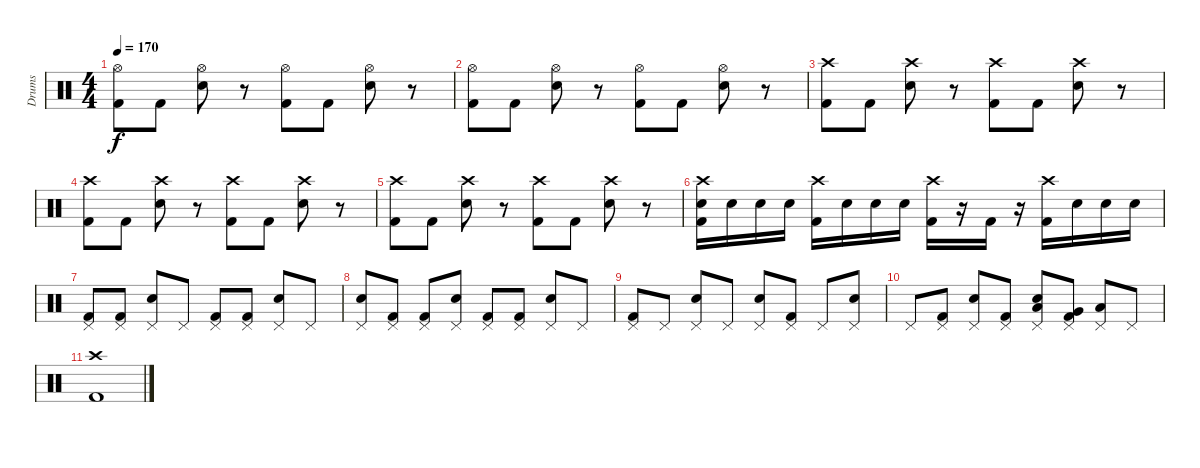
\track ("Drums" "Drums") {instrument percussion}
\staff {score}
\articulation defaults
\ts (4 4)
\tempo 170
\clef neutral
\ks c
("Hi-Hat (open)" "Kick (hit) 2").8{dy f} "Kick (hit) 2".8 ("Hi-Hat (open)" "Electric Snare (hit)").8 r.8 ("Hi-Hat (open)" "Kick (hit) 2").8 "Kick (hit) 2".8 ("Hi-Hat (open)" "Electric Snare (hit)").8 r.8 |
("Hi-Hat (open)" "Kick (hit) 2").8 "Kick (hit) 2".8 ("Hi-Hat (open)" "Electric Snare (hit)").8 r.8 ("Hi-Hat (open)" "Kick (hit) 2").8 "Kick (hit) 2".8 ("Hi-Hat (open)" "Electric Snare (hit)").8 r.8 |
("Crash high (hit)" "Kick (hit) 2").8 "Kick (hit) 2".8 ("Crash high (hit)" "Electric Snare (hit)").8 r.8 ("Crash high (hit)" "Kick (hit) 2").8 "Kick (hit) 2".8 ("Crash high (hit)" "Electric Snare (hit)").8 r.8 |
("Crash high (hit)" "Kick (hit) 2").8 "Kick (hit) 2".8 ("Crash high (hit)" "Electric Snare (hit)").8 r.8 ("Crash high (hit)" "Kick (hit) 2").8 "Kick (hit) 2".8 ("Crash high (hit)" "Electric Snare (hit)").8 r.8 |
("Crash high (hit)" "Kick (hit) 2").8 "Kick (hit) 2".8 ("Crash high (hit)" "Electric Snare (hit)").8 r.8 ("Crash high (hit)" "Kick (hit) 2").8 "Kick (hit) 2".8 ("Crash high (hit)" "Electric Snare (hit)").8 r.8 |
("Crash high (hit)" "Electric Snare (hit)" "Kick (hit) 2").16 "Electric Snare (hit)".16 "Electric Snare (hit)".16 "Electric Snare (hit)".16 ("Crash high (hit)" "Kick (hit) 2").16 "Electric Snare (hit)".16 "Electric Snare (hit)".16 "Electric Snare (hit)".16 ("Crash high (hit)" "Kick (hit) 2").16 r.16 "Kick (hit) 2".16 r.16 ("Crash high (hit)" "Kick (hit) 2").16 "Electric Snare (hit)".16 "Electric Snare (hit)".16 "Electric Snare (hit)".16 |
("Pedal Hi-Hat (hit)" "Kick (hit) 2").8 ("Pedal Hi-Hat (hit)" "Kick (hit) 2").8 ("Pedal Hi-Hat (hit)" "Electric Snare (hit)").8 "Pedal Hi-Hat (hit)".8 ("Pedal Hi-Hat (hit)" "Kick (hit) 2").8 ("Pedal Hi-Hat (hit)" "Kick (hit) 2").8 ("Pedal Hi-Hat (hit)" "Electric Snare (hit)").8 "Pedal Hi-Hat (hit)".8 |
("Pedal Hi-Hat (hit)" "Electric Snare (hit)").8 ("Pedal Hi-Hat (hit)" "Kick (hit) 2").8 ("Pedal Hi-Hat (hit)" "Kick (hit) 2").8 ("Pedal Hi-Hat (hit)" "Electric Snare (hit)").8 ("Pedal Hi-Hat (hit)" "Kick (hit) 2").8 ("Pedal Hi-Hat (hit)" "Kick (hit) 2").8 ("Pedal Hi-Hat (hit)" "Electric Snare (hit)").8 "Pedal Hi-Hat (hit)".8 |
("Pedal Hi-Hat (hit)" "Kick (hit) 2").8 "Pedal Hi-Hat (hit)".8 ("Pedal Hi-Hat (hit)" "Electric Snare (hit)").8 "Pedal Hi-Hat (hit)".8 ("Pedal Hi-Hat (hit)" "Electric Snare (hit)").8 ("Pedal Hi-Hat (hit)" "Kick (hit) 2").8 "Pedal Hi-Hat (hit)".8 ("Pedal Hi-Hat (hit)" "Electric Snare (hit)").8 |
"Pedal Hi-Hat (hit)".8 ("Pedal Hi-Hat (hit)" "Kick (hit) 2").8 ("Pedal Hi-Hat (hit)" "Electric Snare (hit)").8 ("Pedal Hi-Hat (hit)" "Kick (hit) 2").8 ("Low Tom (hit)" "Pedal Hi-Hat (hit)" "Electric Snare (hit)").8 ("Very Low Tom (hit)" "Pedal Hi-Hat (hit)" "Kick (hit) 2").8 ("Low Floor Tom (hit)" "Pedal Hi-Hat (hit)").8 "Pedal Hi-Hat (hit)".8 |
("Crash high (hit)" "Kick (hit) 2").1
